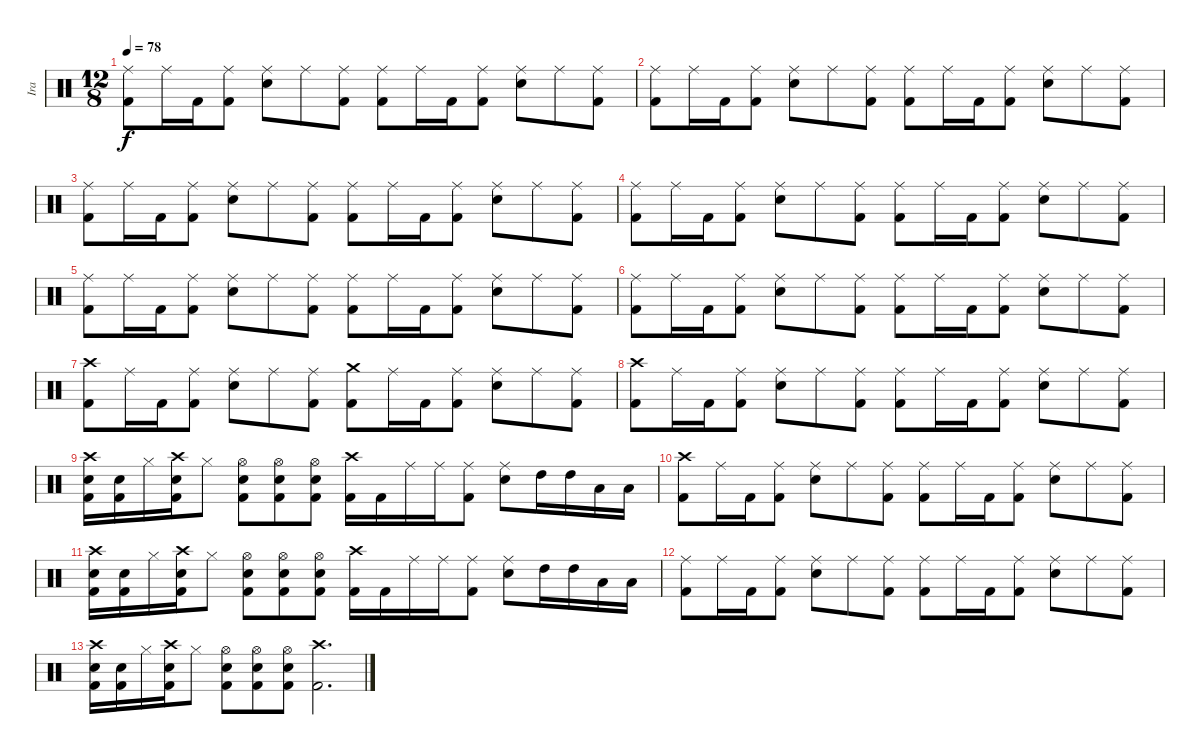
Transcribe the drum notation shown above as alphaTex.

\track ("Ira" "Ira") {instrument percussion}
\staff {score}
\articulation defaults
\ts (12 8)
\tempo 78
\clef neutral
\ks c
("Ride (middle)" "Kick (hit) 2").8{dy f} "Ride (middle)".16 "Kick (hit) 2".16 ("Ride (middle)" "Kick (hit) 2").8 ("Ride (middle)" "Snare (hit) 2").8 "Ride (middle)".8 ("Ride (middle)" "Kick (hit) 2").8 ("Ride (middle)" "Kick (hit) 2").8 "Ride (middle)".16 "Kick (hit) 2".16 ("Ride (middle)" "Kick (hit) 2").8 ("Ride (middle)" "Snare (hit) 2").8 "Ride (middle)".8 ("Ride (middle)" "Kick (hit) 2").8 |
("Ride (middle)" "Kick (hit) 2").8 "Ride (middle)".16 "Kick (hit) 2".16 ("Ride (middle)" "Kick (hit) 2").8 ("Ride (middle)" "Snare (hit) 2").8 "Ride (middle)".8 ("Ride (middle)" "Kick (hit) 2").8 ("Ride (middle)" "Kick (hit) 2").8 "Ride (middle)".16 "Kick (hit) 2".16 ("Ride (middle)" "Kick (hit) 2").8 ("Ride (middle)" "Snare (hit) 2").8 "Ride (middle)".8 ("Ride (middle)" "Kick (hit) 2").8 |
("Ride (middle)" "Kick (hit) 2").8 "Ride (middle)".16 "Kick (hit) 2".16 ("Ride (middle)" "Kick (hit) 2").8 ("Ride (middle)" "Snare (hit) 2").8 "Ride (middle)".8 ("Ride (middle)" "Kick (hit) 2").8 ("Ride (middle)" "Kick (hit) 2").8 "Ride (middle)".16 "Kick (hit) 2".16 ("Ride (middle)" "Kick (hit) 2").8 ("Ride (middle)" "Snare (hit) 2").8 "Ride (middle)".8 ("Ride (middle)" "Kick (hit) 2").8 |
("Ride (middle)" "Kick (hit) 2").8 "Ride (middle)".16 "Kick (hit) 2".16 ("Ride (middle)" "Kick (hit) 2").8 ("Ride (middle)" "Snare (hit) 2").8 "Ride (middle)".8 ("Ride (middle)" "Kick (hit) 2").8 ("Ride (middle)" "Kick (hit) 2").8 "Ride (middle)".16 "Kick (hit) 2".16 ("Ride (middle)" "Kick (hit) 2").8 ("Ride (middle)" "Snare (hit) 2").8 "Ride (middle)".8 ("Ride (middle)" "Kick (hit) 2").8 |
("Ride (middle)" "Kick (hit) 2").8 "Ride (middle)".16 "Kick (hit) 2".16 ("Ride (middle)" "Kick (hit) 2").8 ("Ride (middle)" "Snare (hit) 2").8 "Ride (middle)".8 ("Ride (middle)" "Kick (hit) 2").8 ("Ride (middle)" "Kick (hit) 2").8 "Ride (middle)".16 "Kick (hit) 2".16 ("Ride (middle)" "Kick (hit) 2").8 ("Ride (middle)" "Snare (hit) 2").8 "Ride (middle)".8 ("Ride (middle)" "Kick (hit) 2").8 |
("Ride (middle)" "Kick (hit) 2").8 "Ride (middle)".16 "Kick (hit) 2".16 ("Ride (middle)" "Kick (hit) 2").8 ("Ride (middle)" "Snare (hit) 2").8 "Ride (middle)".8 ("Ride (middle)" "Kick (hit) 2").8 ("Ride (middle)" "Kick (hit) 2").8 "Ride (middle)".16 "Kick (hit) 2".16 ("Ride (middle)" "Kick (hit) 2").8 ("Ride (middle)" "Snare (hit) 2").8 "Ride (middle)".8 ("Ride (middle)" "Kick (hit) 2").8 |
("Crash high (hit)" "Kick (hit) 2").8 "Ride (middle)".16 "Kick (hit) 2".16 ("Ride (middle)" "Kick (hit) 2").8 ("Ride (middle)" "Snare (hit) 2").8 "Ride (middle)".8 ("Ride (middle)" "Kick (hit) 2").8 ("Crash medium (hit)" "Kick (hit) 2").8 "Ride (middle)".16 "Kick (hit) 2".16 ("Ride (middle)" "Kick (hit) 2").8 ("Ride (middle)" "Snare (hit) 2").8 "Ride (middle)".8 ("Ride (middle)" "Kick (hit) 2").8 |
("Crash high (hit)" "Kick (hit) 2").8 "Ride (middle)".16 "Kick (hit) 2".16 ("Ride (middle)" "Kick (hit) 2").8 ("Ride (middle)" "Snare (hit) 2").8 "Ride (middle)".8 ("Ride (middle)" "Kick (hit) 2").8 ("Ride (middle)" "Kick (hit) 2").8 "Ride (middle)".16 "Kick (hit) 2".16 ("Ride (middle)" "Kick (hit) 2").8 ("Ride (middle)" "Snare (hit) 2").8 "Ride (middle)".8 ("Ride (middle)" "Kick (hit) 2").8 |
("Crash high (hit)" "Snare (hit) 2" "Kick (hit) 2").16 ("Snare (hit) 2" "Kick (hit) 2").16 "Hi-Hat (closed)".16 ("Crash high (hit)" "Snare (hit) 2" "Kick (hit) 2").16 "Hi-Hat (closed)".8 ("Hi-Hat (open)" "Snare (hit) 2" "Kick (hit) 2").8 ("Hi-Hat (open)" "Snare (hit) 2" "Kick (hit) 2").8 ("Hi-Hat (open)" "Snare (hit) 2" "Kick (hit) 2").8 ("Crash high (hit)" "Kick (hit) 2").16 "Kick (hit) 2".16 "Ride (middle)".16 "Ride (middle)".16 ("Ride (middle)" "Kick (hit) 2").8 ("Ride (middle)" "Snare (hit) 2").8 "High Tom (hit)".16 "High Tom (hit)".16 "Low Floor Tom (hit)".16 "Low Floor Tom (hit)".16 |
("Crash high (hit)" "Kick (hit) 2").8 "Ride (middle)".16 "Kick (hit) 2".16 ("Ride (middle)" "Kick (hit) 2").8 ("Ride (middle)" "Snare (hit) 2").8 "Ride (middle)".8 ("Ride (middle)" "Kick (hit) 2").8 ("Ride (middle)" "Kick (hit) 2").8 "Ride (middle)".16 "Kick (hit) 2".16 ("Ride (middle)" "Kick (hit) 2").8 ("Ride (middle)" "Snare (hit) 2").8 "Ride (middle)".8 ("Ride (middle)" "Kick (hit) 2").8 |
("Crash high (hit)" "Snare (hit) 2" "Kick (hit) 2").16 ("Snare (hit) 2" "Kick (hit) 2").16 "Hi-Hat (closed)".16 ("Crash high (hit)" "Snare (hit) 2" "Kick (hit) 2").16 "Hi-Hat (closed)".8 ("Hi-Hat (open)" "Snare (hit) 2" "Kick (hit) 2").8 ("Hi-Hat (open)" "Snare (hit) 2" "Kick (hit) 2").8 ("Hi-Hat (open)" "Snare (hit) 2" "Kick (hit) 2").8 ("Crash high (hit)" "Kick (hit) 2").16 "Kick (hit) 2".16 "Ride (middle)".16 "Ride (middle)".16 ("Ride (middle)" "Kick (hit) 2").8 ("Ride (middle)" "Snare (hit) 2").8 "High Tom (hit)".16 "High Tom (hit)".16 "Low Floor Tom (hit)".16 "Low Floor Tom (hit)".16 |
("Ride (middle)" "Kick (hit) 2").8 "Ride (middle)".16 "Kick (hit) 2".16 ("Ride (middle)" "Kick (hit) 2").8 ("Ride (middle)" "Snare (hit) 2").8 "Ride (middle)".8 ("Ride (middle)" "Kick (hit) 2").8 ("Ride (middle)" "Kick (hit) 2").8 "Ride (middle)".16 "Kick (hit) 2".16 ("Ride (middle)" "Kick (hit) 2").8 ("Ride (middle)" "Snare (hit) 2").8 "Ride (middle)".8 ("Ride (middle)" "Kick (hit) 2").8 |
("Crash high (hit)" "Snare (hit) 2" "Kick (hit) 2").16 ("Snare (hit) 2" "Kick (hit) 2").16 "Hi-Hat (closed)".16 ("Crash high (hit)" "Snare (hit) 2" "Kick (hit) 2").16 "Hi-Hat (closed)".8 ("Hi-Hat (open)" "Snare (hit) 2" "Kick (hit) 2").8 ("Hi-Hat (open)" "Snare (hit) 2" "Kick (hit) 2").8 ("Hi-Hat (open)" "Snare (hit) 2" "Kick (hit) 2").8 ("Crash high (hit)" "Kick (hit) 2").2{d}
